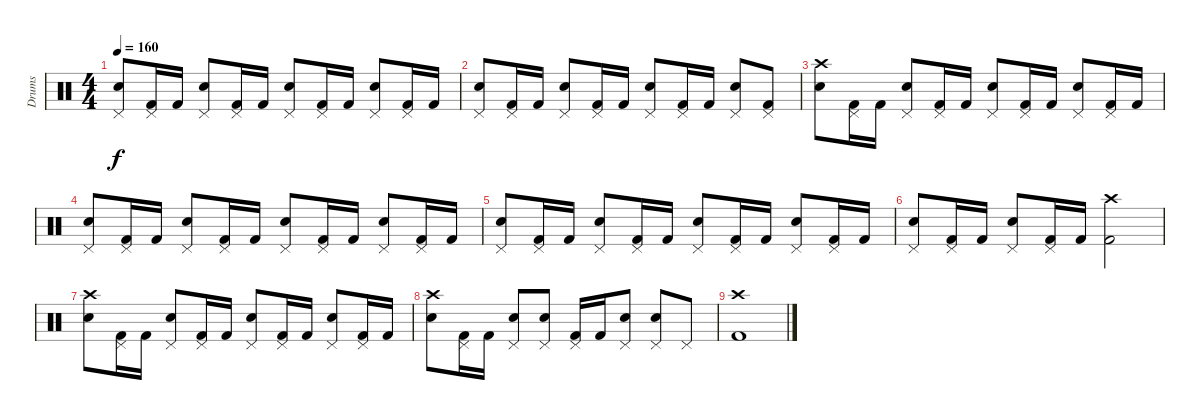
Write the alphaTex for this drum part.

\track ("Drums" "Drums") {instrument percussion}
\staff {score}
\articulation defaults
\ts (4 4)
\tempo 160
\clef neutral
\ks c
("Pedal Hi-Hat (hit)" "Snare (hit) 2").8{dy f} ("Pedal Hi-Hat (hit)" "Kick (hit) 2").16 "Kick (hit) 2".16 ("Pedal Hi-Hat (hit)" "Snare (hit) 2").8 ("Pedal Hi-Hat (hit)" "Kick (hit) 2").16 "Kick (hit) 2".16 ("Pedal Hi-Hat (hit)" "Snare (hit) 2").8 ("Pedal Hi-Hat (hit)" "Kick (hit) 2").16 "Kick (hit) 2".16 ("Pedal Hi-Hat (hit)" "Snare (hit) 2").8 ("Pedal Hi-Hat (hit)" "Kick (hit) 2").16 "Kick (hit) 2".16 |
("Pedal Hi-Hat (hit)" "Snare (hit) 2").8 ("Pedal Hi-Hat (hit)" "Kick (hit) 2").16 "Kick (hit) 2".16 ("Pedal Hi-Hat (hit)" "Snare (hit) 2").8 ("Pedal Hi-Hat (hit)" "Kick (hit) 2").16 "Kick (hit) 2".16 ("Pedal Hi-Hat (hit)" "Snare (hit) 2").8 ("Pedal Hi-Hat (hit)" "Kick (hit) 2").16 "Kick (hit) 2".16 ("Pedal Hi-Hat (hit)" "Snare (hit) 2").8 ("Pedal Hi-Hat (hit)" "Kick (hit) 2").8 |
("Crash high (hit)" "Snare (hit) 2").8 ("Pedal Hi-Hat (hit)" "Kick (hit) 2").16 "Kick (hit) 2".16 ("Pedal Hi-Hat (hit)" "Snare (hit) 2").8 ("Pedal Hi-Hat (hit)" "Kick (hit) 2").16 "Kick (hit) 2".16 ("Pedal Hi-Hat (hit)" "Snare (hit) 2").8 ("Pedal Hi-Hat (hit)" "Kick (hit) 2").16 "Kick (hit) 2".16 ("Pedal Hi-Hat (hit)" "Snare (hit) 2").8 ("Pedal Hi-Hat (hit)" "Kick (hit) 2").16 "Kick (hit) 2".16 |
("Pedal Hi-Hat (hit)" "Snare (hit) 2").8 ("Pedal Hi-Hat (hit)" "Kick (hit) 2").16 "Kick (hit) 2".16 ("Pedal Hi-Hat (hit)" "Snare (hit) 2").8 ("Pedal Hi-Hat (hit)" "Kick (hit) 2").16 "Kick (hit) 2".16 ("Pedal Hi-Hat (hit)" "Snare (hit) 2").8 ("Pedal Hi-Hat (hit)" "Kick (hit) 2").16 "Kick (hit) 2".16 ("Pedal Hi-Hat (hit)" "Snare (hit) 2").8 ("Pedal Hi-Hat (hit)" "Kick (hit) 2").16 "Kick (hit) 2".16 |
("Pedal Hi-Hat (hit)" "Snare (hit) 2").8 ("Pedal Hi-Hat (hit)" "Kick (hit) 2").16 "Kick (hit) 2".16 ("Pedal Hi-Hat (hit)" "Snare (hit) 2").8 ("Pedal Hi-Hat (hit)" "Kick (hit) 2").16 "Kick (hit) 2".16 ("Pedal Hi-Hat (hit)" "Snare (hit) 2").8 ("Pedal Hi-Hat (hit)" "Kick (hit) 2").16 "Kick (hit) 2".16 ("Pedal Hi-Hat (hit)" "Snare (hit) 2").8 ("Pedal Hi-Hat (hit)" "Kick (hit) 2").16 "Kick (hit) 2".16 |
("Pedal Hi-Hat (hit)" "Snare (hit) 2").8 ("Pedal Hi-Hat (hit)" "Kick (hit) 2").16 "Kick (hit) 2".16 ("Pedal Hi-Hat (hit)" "Snare (hit) 2").8 ("Pedal Hi-Hat (hit)" "Kick (hit) 2").16 "Kick (hit) 2".16 ("Crash high (hit)" "Kick (hit) 2").2 |
("Crash high (hit)" "Snare (hit) 2").8 ("Pedal Hi-Hat (hit)" "Kick (hit) 2").16 "Kick (hit) 2".16 ("Pedal Hi-Hat (hit)" "Snare (hit) 2").8 ("Pedal Hi-Hat (hit)" "Kick (hit) 2").16 "Kick (hit) 2".16 ("Pedal Hi-Hat (hit)" "Snare (hit) 2").8 ("Pedal Hi-Hat (hit)" "Kick (hit) 2").16 "Kick (hit) 2".16 ("Pedal Hi-Hat (hit)" "Snare (hit) 2").8 ("Pedal Hi-Hat (hit)" "Kick (hit) 2").16 "Kick (hit) 2".16 |
("Crash high (hit)" "Snare (hit) 2").8 ("Pedal Hi-Hat (hit)" "Kick (hit) 2").16 "Kick (hit) 2".16 ("Pedal Hi-Hat (hit)" "Snare (hit) 2").8 ("Pedal Hi-Hat (hit)" "Snare (hit) 2").8 ("Pedal Hi-Hat (hit)" "Kick (hit) 2").16 "Kick (hit) 2".16 ("Pedal Hi-Hat (hit)" "Snare (hit) 2").8 ("Pedal Hi-Hat (hit)" "Snare (hit) 2").8 "Pedal Hi-Hat (hit)".8 |
("Crash high (hit)" "Kick (hit) 2").1
